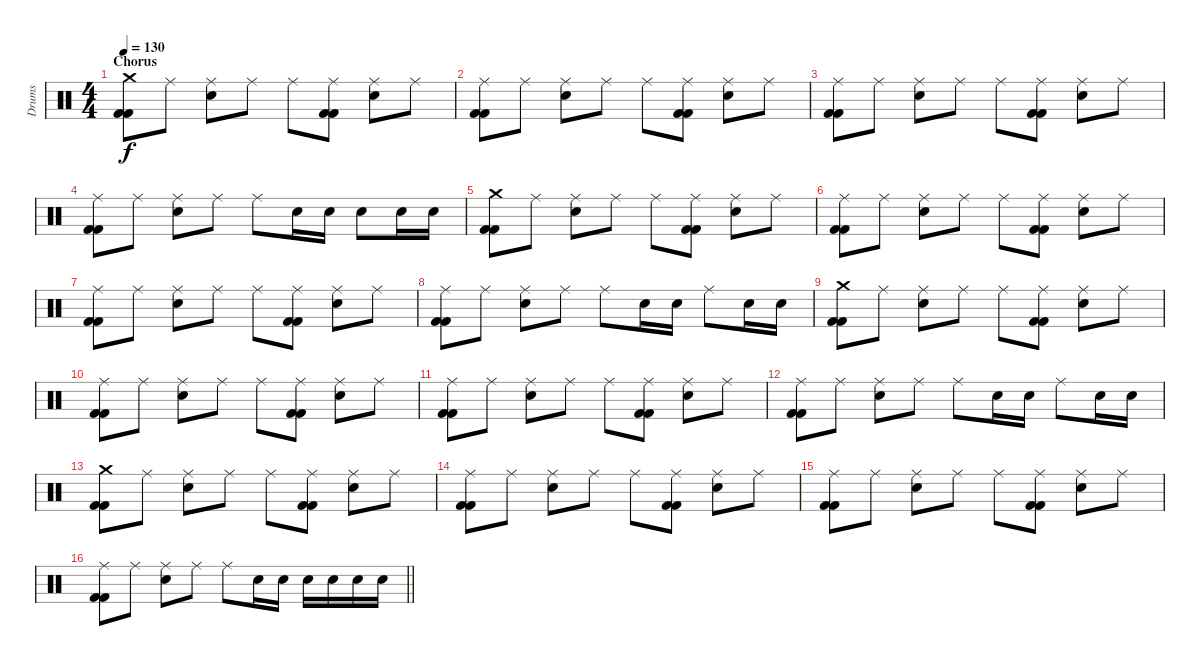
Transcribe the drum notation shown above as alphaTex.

\track ("Drums" "Drums") {instrument percussion}
\staff {score}
\articulation defaults
\ts (4 4)
\section ("" "Chorus")
\tempo 130
\clef neutral
\ks c
("Crash medium (hit)" "Kick (hit) 2" "Kick (hit) 2").8{dy f} "Ride (middle)".8 ("Ride (middle)" "Electric Snare (hit)").8 "Ride (middle)".8 "Ride (middle)".8 ("Ride (middle)" "Kick (hit) 2" "Kick (hit) 2").8 ("Ride (middle)" "Electric Snare (hit)").8 "Ride (middle)".8 |
("Ride (middle)" "Kick (hit) 2" "Kick (hit) 2").8 "Ride (middle)".8 ("Ride (middle)" "Electric Snare (hit)").8 "Ride (middle)".8 "Ride (middle)".8 ("Ride (middle)" "Kick (hit) 2" "Kick (hit) 2").8 ("Ride (middle)" "Electric Snare (hit)").8 "Ride (middle)".8 |
("Ride (middle)" "Kick (hit) 2" "Kick (hit) 2").8 "Ride (middle)".8 ("Ride (middle)" "Electric Snare (hit)").8 "Ride (middle)".8 "Ride (middle)".8 ("Ride (middle)" "Kick (hit) 2" "Kick (hit) 2").8 ("Ride (middle)" "Electric Snare (hit)").8 "Ride (middle)".8 |
("Ride (middle)" "Kick (hit) 2" "Kick (hit) 2").8 "Ride (middle)".8 ("Ride (middle)" "Electric Snare (hit)").8 "Ride (middle)".8 "Ride (middle)".8 "Electric Snare (hit)".16 "Electric Snare (hit)".16 "Electric Snare (hit)".8 "Electric Snare (hit)".16 "Electric Snare (hit)".16 |
("Crash medium (hit)" "Kick (hit) 2" "Kick (hit) 2").8 "Ride (middle)".8 ("Ride (middle)" "Electric Snare (hit)").8 "Ride (middle)".8 "Ride (middle)".8 ("Ride (middle)" "Kick (hit) 2" "Kick (hit) 2").8 ("Ride (middle)" "Electric Snare (hit)").8 "Ride (middle)".8 |
("Ride (middle)" "Kick (hit) 2" "Kick (hit) 2").8 "Ride (middle)".8 ("Ride (middle)" "Electric Snare (hit)").8 "Ride (middle)".8 "Ride (middle)".8 ("Ride (middle)" "Kick (hit) 2" "Kick (hit) 2").8 ("Ride (middle)" "Electric Snare (hit)").8 "Ride (middle)".8 |
("Ride (middle)" "Kick (hit) 2" "Kick (hit) 2").8 "Ride (middle)".8 ("Ride (middle)" "Electric Snare (hit)").8 "Ride (middle)".8 "Ride (middle)".8 ("Ride (middle)" "Kick (hit) 2" "Kick (hit) 2").8 ("Ride (middle)" "Electric Snare (hit)").8 "Ride (middle)".8 |
("Ride (middle)" "Kick (hit) 2" "Kick (hit) 2").8 "Ride (middle)".8 ("Ride (middle)" "Electric Snare (hit)").8 "Ride (middle)".8 "Ride (middle)".8 "Electric Snare (hit)".16 "Electric Snare (hit)".16 "Ride (middle)".8 "Electric Snare (hit)".16 "Electric Snare (hit)".16 |
("Crash medium (hit)" "Kick (hit) 2" "Kick (hit) 2").8 "Ride (middle)".8 ("Ride (middle)" "Electric Snare (hit)").8 "Ride (middle)".8 "Ride (middle)".8 ("Ride (middle)" "Kick (hit) 2" "Kick (hit) 2").8 ("Ride (middle)" "Electric Snare (hit)").8 "Ride (middle)".8 |
("Ride (middle)" "Kick (hit) 2" "Kick (hit) 2").8 "Ride (middle)".8 ("Ride (middle)" "Electric Snare (hit)").8 "Ride (middle)".8 "Ride (middle)".8 ("Ride (middle)" "Kick (hit) 2" "Kick (hit) 2").8 ("Ride (middle)" "Electric Snare (hit)").8 "Ride (middle)".8 |
("Ride (middle)" "Kick (hit) 2" "Kick (hit) 2").8 "Ride (middle)".8 ("Ride (middle)" "Electric Snare (hit)").8 "Ride (middle)".8 "Ride (middle)".8 ("Ride (middle)" "Kick (hit) 2" "Kick (hit) 2").8 ("Ride (middle)" "Electric Snare (hit)").8 "Ride (middle)".8 |
("Ride (middle)" "Kick (hit) 2" "Kick (hit) 2").8 "Ride (middle)".8 ("Ride (middle)" "Electric Snare (hit)").8 "Ride (middle)".8 "Ride (middle)".8 "Electric Snare (hit)".16 "Electric Snare (hit)".16 "Ride (middle)".8 "Electric Snare (hit)".16 "Electric Snare (hit)".16 |
("Crash medium (hit)" "Kick (hit) 2" "Kick (hit) 2").8 "Ride (middle)".8 ("Ride (middle)" "Electric Snare (hit)").8 "Ride (middle)".8 "Ride (middle)".8 ("Ride (middle)" "Kick (hit) 2" "Kick (hit) 2").8 ("Ride (middle)" "Electric Snare (hit)").8 "Ride (middle)".8 |
("Ride (middle)" "Kick (hit) 2" "Kick (hit) 2").8 "Ride (middle)".8 ("Ride (middle)" "Electric Snare (hit)").8 "Ride (middle)".8 "Ride (middle)".8 ("Ride (middle)" "Kick (hit) 2" "Kick (hit) 2").8 ("Ride (middle)" "Electric Snare (hit)").8 "Ride (middle)".8 |
("Ride (middle)" "Kick (hit) 2" "Kick (hit) 2").8 "Ride (middle)".8 ("Ride (middle)" "Electric Snare (hit)").8 "Ride (middle)".8 "Ride (middle)".8 ("Ride (middle)" "Kick (hit) 2" "Kick (hit) 2").8 ("Ride (middle)" "Electric Snare (hit)").8 "Ride (middle)".8 |
\barLineRight lightlight
("Ride (middle)" "Kick (hit) 2" "Kick (hit) 2").8 "Ride (middle)".8 ("Ride (middle)" "Electric Snare (hit)").8 "Ride (middle)".8 "Ride (middle)".8 "Electric Snare (hit)".16 "Electric Snare (hit)".16 "Electric Snare (hit)".16 "Electric Snare (hit)".16 "Electric Snare (hit)".16 "Electric Snare (hit)".16
